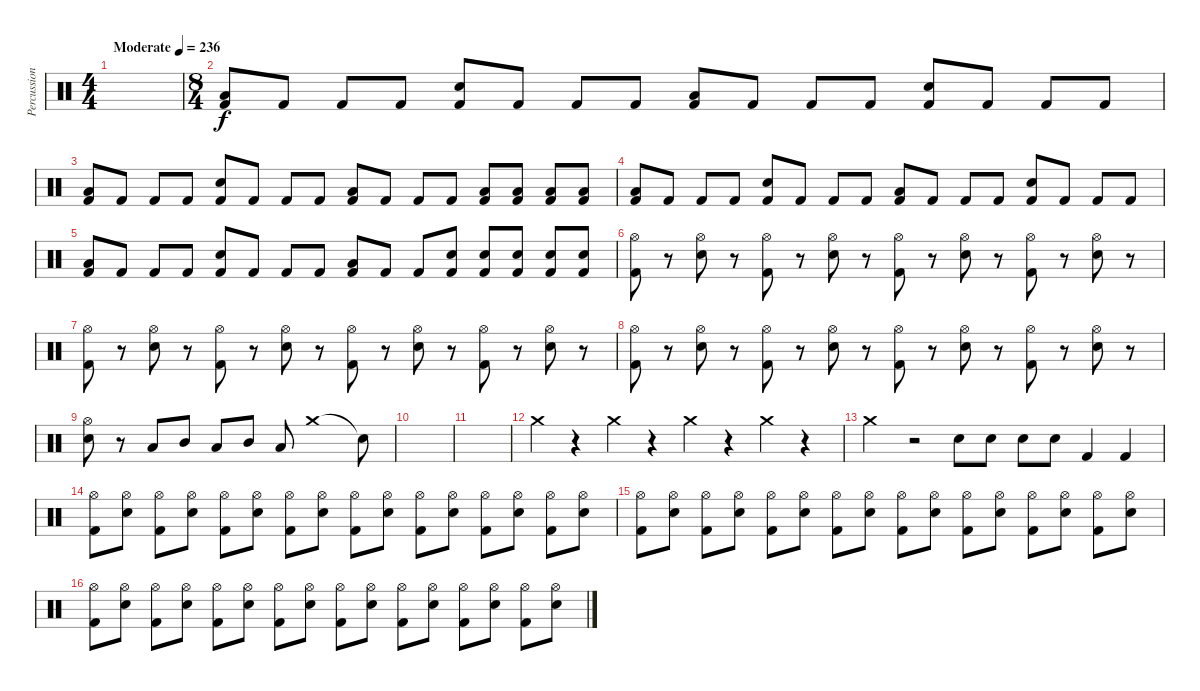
\track ("Percussion" "Percussion") {instrument percussion}
\staff {score}
\articulation defaults
\ts (4 4)
\tempo (236 "Moderate")
\clef neutral
\ks c
|
\ts (8 4)
("Low Tom (hit)" "Kick (hit) 2").8 "Kick (hit) 2".8 "Kick (hit) 2".8 "Kick (hit) 2".8 ("Snare (hit) 2" "Kick (hit) 2").8 "Kick (hit) 2".8 "Kick (hit) 2".8 "Kick (hit) 2".8 ("Low Tom (hit)" "Kick (hit) 2").8 "Kick (hit) 2".8 "Kick (hit) 2".8 "Kick (hit) 2".8 ("Snare (hit) 2" "Kick (hit) 2").8 "Kick (hit) 2".8 "Kick (hit) 2".8 "Kick (hit) 2".8 |
("Low Tom (hit)" "Kick (hit) 2").8 "Kick (hit) 2".8 "Kick (hit) 2".8 "Kick (hit) 2".8 ("Snare (hit) 2" "Kick (hit) 2").8 "Kick (hit) 2".8 "Kick (hit) 2".8 "Kick (hit) 2".8 ("Low Tom (hit)" "Kick (hit) 2").8 "Kick (hit) 2".8 "Kick (hit) 2".8 "Kick (hit) 2".8 ("Low Tom (hit)" "Kick (hit) 2").8 ("Low Tom (hit)" "Kick (hit) 2").8 ("Low Tom (hit)" "Kick (hit) 2").8 ("Low Tom (hit)" "Kick (hit) 2").8 |
("Low Tom (hit)" "Kick (hit) 2").8 "Kick (hit) 2".8 "Kick (hit) 2".8 "Kick (hit) 2".8 ("Snare (hit) 2" "Kick (hit) 2").8 "Kick (hit) 2".8 "Kick (hit) 2".8 "Kick (hit) 2".8 ("Low Tom (hit)" "Kick (hit) 2").8 "Kick (hit) 2".8 "Kick (hit) 2".8 "Kick (hit) 2".8 ("Snare (hit) 2" "Kick (hit) 2").8 "Kick (hit) 2".8 "Kick (hit) 2".8 "Kick (hit) 2".8 |
("Low Tom (hit)" "Kick (hit) 2").8 "Kick (hit) 2".8 "Kick (hit) 2".8 "Kick (hit) 2".8 ("Snare (hit) 2" "Kick (hit) 2").8 "Kick (hit) 2".8 "Kick (hit) 2".8 "Kick (hit) 2".8 ("Low Tom (hit)" "Kick (hit) 2").8 "Kick (hit) 2".8 "Kick (hit) 2".8 ("Snare (hit) 2" "Kick (hit) 2").8 ("Snare (hit) 2" "Kick (hit) 2").8 ("Snare (hit) 2" "Kick (hit) 2").8 ("Snare (hit) 2" "Kick (hit) 2").8 ("Snare (hit) 2" "Kick (hit) 2").8 |
("Hi-Hat (open)" "Kick (hit) 2").8 r.8 ("Hi-Hat (open)" "Snare (hit) 2").8 r.8 ("Hi-Hat (open)" "Kick (hit) 2").8 r.8 ("Hi-Hat (open)" "Snare (hit) 2").8 r.8 ("Hi-Hat (open)" "Kick (hit) 2").8 r.8 ("Hi-Hat (open)" "Snare (hit) 2").8 r.8 ("Hi-Hat (open)" "Kick (hit) 2").8 r.8 ("Hi-Hat (open)" "Snare (hit) 2").8 r.8 |
("Hi-Hat (open)" "Kick (hit) 2").8 r.8 ("Hi-Hat (open)" "Snare (hit) 2").8 r.8 ("Hi-Hat (open)" "Kick (hit) 2").8 r.8 ("Hi-Hat (open)" "Snare (hit) 2").8 r.8 ("Hi-Hat (open)" "Kick (hit) 2").8 r.8 ("Hi-Hat (open)" "Snare (hit) 2").8 r.8 ("Hi-Hat (open)" "Kick (hit) 2").8 r.8 ("Hi-Hat (open)" "Snare (hit) 2").8 r.8 |
("Hi-Hat (open)" "Kick (hit) 2").8 r.8 ("Hi-Hat (open)" "Snare (hit) 2").8 r.8 ("Hi-Hat (open)" "Kick (hit) 2").8 r.8 ("Hi-Hat (open)" "Snare (hit) 2").8 r.8 ("Hi-Hat (open)" "Kick (hit) 2").8 r.8 ("Hi-Hat (open)" "Snare (hit) 2").8 r.8 ("Hi-Hat (open)" "Kick (hit) 2").8 r.8 ("Hi-Hat (open)" "Snare (hit) 2").8 r.8 |
("Hi-Hat (open)" "Snare (hit) 2").8 r.8 "Low Tom (hit)".8 "Mid Tom (hit)".8 "Low Tom (hit)".8 "Mid Tom (hit)".8 "Low Tom (hit)".8 "Crash medium (hit)".1 "Snare (hit)"{t}.8 |
|
|
"Crash medium (hit)".4 r.4 "Crash medium (hit)".4 r.4 "Crash medium (hit)".4 r.4 "Crash medium (hit)".4 r.4 |
"Crash medium (hit)".2 r.2 "Snare (hit) 2".8 "Snare (hit) 2".8 "Snare (hit) 2".8 "Snare (hit) 2".8 "Kick (hit) 2".4 "Kick (hit) 2".4 |
("Hi-Hat (open)" "Kick (hit) 2").8 ("Hi-Hat (open)" "Snare (hit) 2").8 ("Hi-Hat (open)" "Kick (hit) 2").8 ("Hi-Hat (open)" "Snare (hit) 2").8 ("Hi-Hat (open)" "Kick (hit) 2").8 ("Hi-Hat (open)" "Snare (hit) 2").8 ("Hi-Hat (open)" "Kick (hit) 2").8 ("Hi-Hat (open)" "Snare (hit) 2").8 ("Hi-Hat (open)" "Kick (hit) 2").8 ("Hi-Hat (open)" "Snare (hit) 2").8 ("Hi-Hat (open)" "Kick (hit) 2").8 ("Hi-Hat (open)" "Snare (hit) 2").8 ("Hi-Hat (open)" "Kick (hit) 2").8 ("Hi-Hat (open)" "Snare (hit) 2").8 ("Hi-Hat (open)" "Kick (hit) 2").8 ("Hi-Hat (open)" "Snare (hit) 2").8 |
("Hi-Hat (open)" "Kick (hit) 2").8 ("Hi-Hat (open)" "Snare (hit) 2").8 ("Hi-Hat (open)" "Kick (hit) 2").8 ("Hi-Hat (open)" "Snare (hit) 2").8 ("Hi-Hat (open)" "Kick (hit) 2").8 ("Hi-Hat (open)" "Snare (hit) 2").8 ("Hi-Hat (open)" "Kick (hit) 2").8 ("Hi-Hat (open)" "Snare (hit) 2").8 ("Hi-Hat (open)" "Kick (hit) 2").8 ("Hi-Hat (open)" "Snare (hit) 2").8 ("Hi-Hat (open)" "Kick (hit) 2").8 ("Hi-Hat (open)" "Snare (hit) 2").8 ("Hi-Hat (open)" "Kick (hit) 2").8 ("Hi-Hat (open)" "Snare (hit) 2").8 ("Hi-Hat (open)" "Kick (hit) 2").8 ("Hi-Hat (open)" "Snare (hit) 2").8 |
("Hi-Hat (open)" "Kick (hit) 2").8 ("Hi-Hat (open)" "Snare (hit) 2").8 ("Hi-Hat (open)" "Kick (hit) 2").8 ("Hi-Hat (open)" "Snare (hit) 2").8 ("Hi-Hat (open)" "Kick (hit) 2").8 ("Hi-Hat (open)" "Snare (hit) 2").8 ("Hi-Hat (open)" "Kick (hit) 2").8 ("Hi-Hat (open)" "Snare (hit) 2").8 ("Hi-Hat (open)" "Kick (hit) 2").8 ("Hi-Hat (open)" "Snare (hit) 2").8 ("Hi-Hat (open)" "Kick (hit) 2").8 ("Hi-Hat (open)" "Snare (hit) 2").8 ("Hi-Hat (open)" "Kick (hit) 2").8 ("Hi-Hat (open)" "Snare (hit) 2").8 ("Hi-Hat (open)" "Kick (hit) 2").8 ("Hi-Hat (open)" "Snare (hit) 2").8
